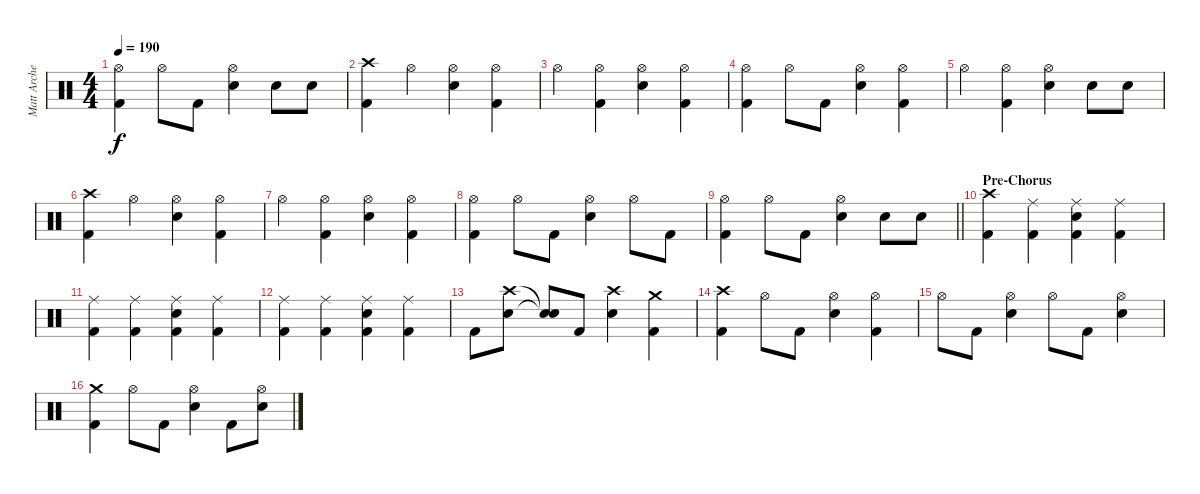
\track ("Matt Archer" "Matt Arche") {instrument percussion}
\staff {score}
\articulation defaults
\ts (4 4)
\tempo 190
\clef neutral
\ks c
("Hi-Hat (open)" "Kick (hit) 2").4{dy f} "Hi-Hat (open)".8 "Kick (hit) 2".8 ("Hi-Hat (open)" "Snare (hit) 2").4 "Snare (hit) 2".8 "Snare (hit) 2".8 |
("Crash high (hit)" "Kick (hit) 2").4 "Hi-Hat (open)".4 ("Hi-Hat (open)" "Snare (hit) 2").4 ("Hi-Hat (open)" "Kick (hit) 2").4 |
"Hi-Hat (open)".4 ("Hi-Hat (open)" "Kick (hit) 2").4 ("Hi-Hat (open)" "Snare (hit) 2").4 ("Hi-Hat (open)" "Kick (hit) 2").4 |
("Hi-Hat (open)" "Kick (hit) 2").4 "Hi-Hat (open)".8 "Kick (hit) 2".8 ("Hi-Hat (open)" "Snare (hit) 2").4 ("Hi-Hat (open)" "Kick (hit) 2").4 |
"Hi-Hat (open)".4 ("Hi-Hat (open)" "Kick (hit) 2").4 ("Hi-Hat (open)" "Snare (hit) 2").4 "Snare (hit) 2".8 "Snare (hit) 2".8 |
("Crash high (hit)" "Kick (hit) 2").4 "Hi-Hat (open)".4 ("Hi-Hat (open)" "Snare (hit) 2").4 ("Hi-Hat (open)" "Kick (hit) 2").4 |
"Hi-Hat (open)".4 ("Hi-Hat (open)" "Kick (hit) 2").4 ("Hi-Hat (open)" "Snare (hit) 2").4 ("Hi-Hat (open)" "Kick (hit) 2").4 |
("Hi-Hat (open)" "Kick (hit) 2").4 "Hi-Hat (open)".8 "Kick (hit) 2".8 ("Hi-Hat (open)" "Snare (hit) 2").4 "Hi-Hat (open)".8 "Kick (hit) 2".8 |
\barLineRight lightlight
("Hi-Hat (open)" "Kick (hit) 2").4 "Hi-Hat (open)".8 "Kick (hit) 2".8 ("Hi-Hat (open)" "Snare (hit) 2").4 "Snare (hit) 2".8 "Snare (hit) 2".8 |
\section ("" "Pre-Chorus")
("Crash high (hit)" "Kick (hit) 2").4 ("Ride (middle)" "Kick (hit) 2").4 ("Ride (middle)" "Snare (hit) 2" "Kick (hit) 2").4 ("Ride (middle)" "Kick (hit) 2").4 |
("Ride (middle)" "Kick (hit) 2").4 ("Ride (middle)" "Kick (hit) 2").4 ("Ride (middle)" "Snare (hit) 2" "Kick (hit) 2").4 ("Ride (middle)" "Kick (hit) 2").4 |
("Ride (middle)" "Kick (hit) 2").4 ("Ride (middle)" "Kick (hit) 2").4 ("Ride (middle)" "Snare (hit) 2" "Kick (hit) 2").4 ("Ride (middle)" "Kick (hit) 2").4 |
"Kick (hit) 2".8 ("Crash high (hit)" "Snare (hit) 2").8 ("Snare (hit)"{t} "Snare (hit)"{t}).8 "Kick (hit) 2".8 ("Crash high (hit)" "Snare (hit) 2").4 ("Crash medium (hit)" "Kick (hit) 2").4 |
("Crash high (hit)" "Kick (hit) 2").4 "Hi-Hat (open)".8 "Kick (hit) 2".8 ("Hi-Hat (open)" "Snare (hit) 2").4 ("Hi-Hat (open)" "Kick (hit) 2").4 |
"Hi-Hat (open)".8 "Kick (hit) 2".8 ("Hi-Hat (open)" "Snare (hit) 2").4 "Hi-Hat (open)".8 "Kick (hit) 2".8 ("Hi-Hat (open)" "Snare (hit) 2").4 |
("Crash medium (hit)" "Kick (hit) 2").4 "Hi-Hat (open)".8 "Kick (hit) 2".8 ("Hi-Hat (open)" "Snare (hit) 2").4 "Kick (hit) 2".8 ("Hi-Hat (open)" "Snare (hit) 2").8
